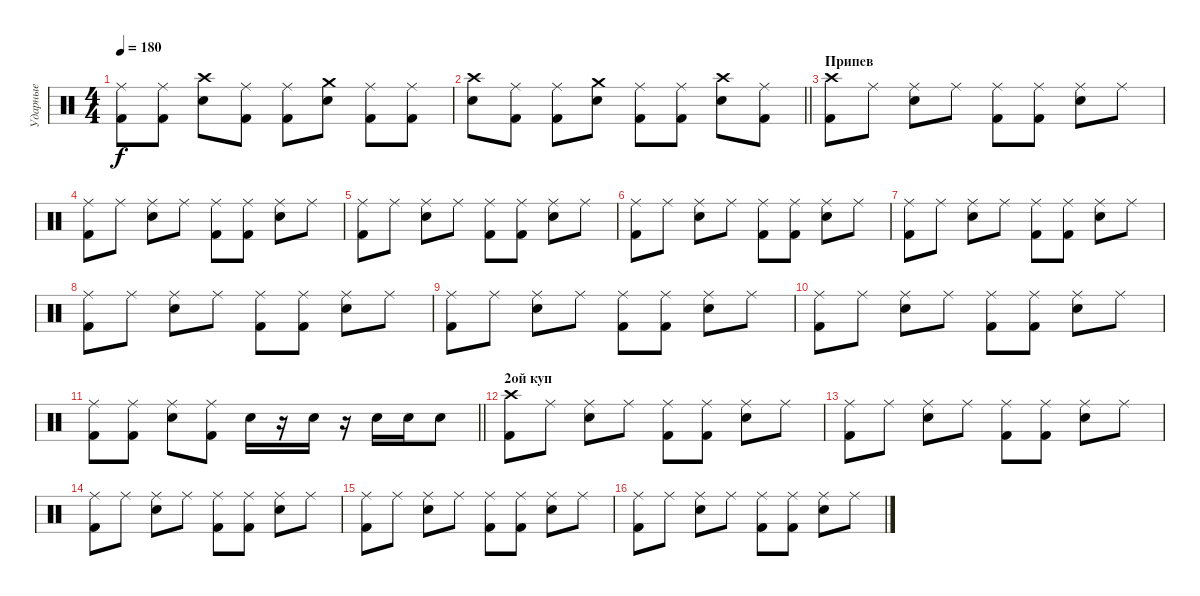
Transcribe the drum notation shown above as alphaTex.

\track ("Ударные" "Ударные") {instrument percussion}
\staff {score}
\articulation defaults
\ts (4 4)
\tempo 180
\clef neutral
\ks c
("Ride (middle)" "Kick (hit) 2").8{dy f} ("Ride (middle)" "Kick (hit) 2").8 ("Crash high (hit)" "Electric Snare (hit)").8 ("Ride (middle)" "Kick (hit) 2").8 ("Ride (middle)" "Kick (hit) 2").8 ("Crash medium (hit)" "Electric Snare (hit)").8 ("Ride (middle)" "Kick (hit) 2").8 ("Ride (middle)" "Kick (hit) 2").8 |
\barLineRight lightlight
("Crash high (hit)" "Electric Snare (hit)").8 ("Ride (middle)" "Kick (hit) 2").8 ("Ride (middle)" "Kick (hit) 2").8 ("Crash medium (hit)" "Electric Snare (hit)").8 ("Ride (middle)" "Kick (hit) 2").8 ("Ride (middle)" "Kick (hit) 2").8 ("Crash high (hit)" "Electric Snare (hit)").8 ("Ride (middle)" "Kick (hit) 2").8 |
\section ("" "Припев")
("Crash high (hit)" "Kick (hit) 2").8 "Ride (middle)".8 ("Ride (middle)" "Electric Snare (hit)").8 "Ride (middle)".8 ("Ride (middle)" "Kick (hit) 2").8 ("Ride (middle)" "Kick (hit) 2").8 ("Ride (middle)" "Electric Snare (hit)").8 "Ride (middle)".8 |
("Ride (middle)" "Kick (hit) 2").8 "Ride (middle)".8 ("Ride (middle)" "Electric Snare (hit)").8 "Ride (middle)".8 ("Ride (middle)" "Kick (hit) 2").8 ("Ride (middle)" "Kick (hit) 2").8 ("Ride (middle)" "Electric Snare (hit)").8 "Ride (middle)".8 |
("Ride (middle)" "Kick (hit) 2").8 "Ride (middle)".8 ("Ride (middle)" "Electric Snare (hit)").8 "Ride (middle)".8 ("Ride (middle)" "Kick (hit) 2").8 ("Ride (middle)" "Kick (hit) 2").8 ("Ride (middle)" "Electric Snare (hit)").8 "Ride (middle)".8 |
("Ride (middle)" "Kick (hit) 2").8 "Ride (middle)".8 ("Ride (middle)" "Electric Snare (hit)").8 "Ride (middle)".8 ("Ride (middle)" "Kick (hit) 2").8 ("Ride (middle)" "Kick (hit) 2").8 ("Ride (middle)" "Electric Snare (hit)").8 "Ride (middle)".8 |
("Ride (middle)" "Kick (hit) 2").8 "Ride (middle)".8 ("Ride (middle)" "Electric Snare (hit)").8 "Ride (middle)".8 ("Ride (middle)" "Kick (hit) 2").8 ("Ride (middle)" "Kick (hit) 2").8 ("Ride (middle)" "Electric Snare (hit)").8 "Ride (middle)".8 |
("Ride (middle)" "Kick (hit) 2").8 "Ride (middle)".8 ("Ride (middle)" "Electric Snare (hit)").8 "Ride (middle)".8 ("Ride (middle)" "Kick (hit) 2").8 ("Ride (middle)" "Kick (hit) 2").8 ("Ride (middle)" "Electric Snare (hit)").8 "Ride (middle)".8 |
("Ride (middle)" "Kick (hit) 2").8 "Ride (middle)".8 ("Ride (middle)" "Electric Snare (hit)").8 "Ride (middle)".8 ("Ride (middle)" "Kick (hit) 2").8 ("Ride (middle)" "Kick (hit) 2").8 ("Ride (middle)" "Electric Snare (hit)").8 "Ride (middle)".8 |
("Ride (middle)" "Kick (hit) 2").8 "Ride (middle)".8 ("Ride (middle)" "Electric Snare (hit)").8 "Ride (middle)".8 ("Ride (middle)" "Kick (hit) 2").8 ("Ride (middle)" "Kick (hit) 2").8 ("Ride (middle)" "Electric Snare (hit)").8 "Ride (middle)".8 |
\barLineRight lightlight
("Ride (middle)" "Kick (hit) 2").8 ("Ride (middle)" "Kick (hit) 2").8 ("Ride (middle)" "Electric Snare (hit)").8 ("Ride (middle)" "Kick (hit) 2").8 "Electric Snare (hit)".16 r.16 "Electric Snare (hit)".16 r.16 "Electric Snare (hit)".16 "Electric Snare (hit)".16 "Electric Snare (hit)".8 |
\section ("" "2ой куп")
("Crash high (hit)" "Kick (hit) 2").8 "Ride (middle)".8 ("Ride (middle)" "Electric Snare (hit)").8 "Ride (middle)".8 ("Ride (middle)" "Kick (hit) 2").8 ("Ride (middle)" "Kick (hit) 2").8 ("Ride (middle)" "Electric Snare (hit)").8 "Ride (middle)".8 |
("Ride (middle)" "Kick (hit) 2").8 "Ride (middle)".8 ("Ride (middle)" "Electric Snare (hit)").8 "Ride (middle)".8 ("Ride (middle)" "Kick (hit) 2").8 ("Ride (middle)" "Kick (hit) 2").8 ("Ride (middle)" "Electric Snare (hit)").8 "Ride (middle)".8 |
("Ride (middle)" "Kick (hit) 2").8 "Ride (middle)".8 ("Ride (middle)" "Electric Snare (hit)").8 "Ride (middle)".8 ("Ride (middle)" "Kick (hit) 2").8 ("Ride (middle)" "Kick (hit) 2").8 ("Ride (middle)" "Electric Snare (hit)").8 "Ride (middle)".8 |
("Ride (middle)" "Kick (hit) 2").8 "Ride (middle)".8 ("Ride (middle)" "Electric Snare (hit)").8 "Ride (middle)".8 ("Ride (middle)" "Kick (hit) 2").8 ("Ride (middle)" "Kick (hit) 2").8 ("Ride (middle)" "Electric Snare (hit)").8 "Ride (middle)".8 |
("Ride (middle)" "Kick (hit) 2").8 "Ride (middle)".8 ("Ride (middle)" "Electric Snare (hit)").8 "Ride (middle)".8 ("Ride (middle)" "Kick (hit) 2").8 ("Ride (middle)" "Kick (hit) 2").8 ("Ride (middle)" "Electric Snare (hit)").8 "Ride (middle)".8
